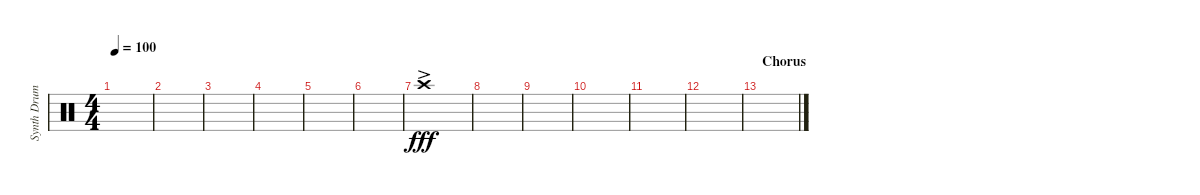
\track ("Synth Drums - John F" "Synth Drum") {instrument percussion}
\staff {score}
\articulation defaults
\ts (4 4)
\tempo 100
\clef neutral
\ks c
|
|
|
|
|
|
"Crash high (hit)"{ac}.1{dy fff} |
|
|
|
|
|
\section ("" "Chorus")
